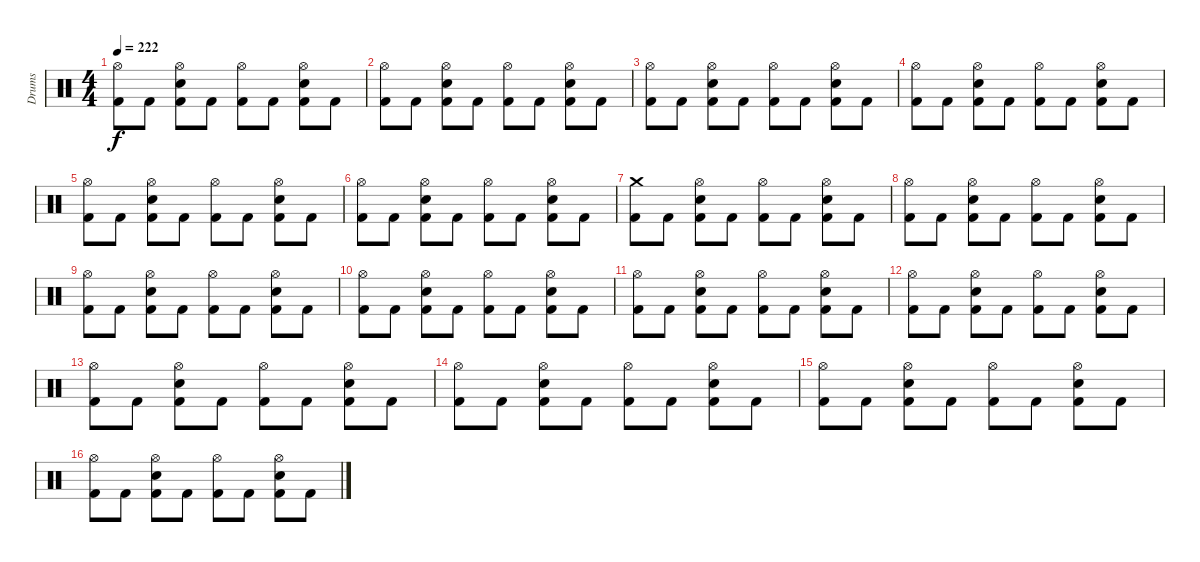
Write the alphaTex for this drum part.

\track ("Drums" "Drums") {instrument percussion}
\staff {score}
\articulation defaults
\ts (4 4)
\tempo 222
\clef neutral
\ks c
("Hi-Hat (open)" "Kick (hit) 2").8{dy f} "Kick (hit) 2".8 ("Hi-Hat (open)" "Electric Snare (hit)" "Kick (hit) 2").8 "Kick (hit) 2".8 ("Hi-Hat (open)" "Kick (hit) 2").8 "Kick (hit) 2".8 ("Hi-Hat (open)" "Electric Snare (hit)" "Kick (hit) 2").8 "Kick (hit) 2".8 |
("Hi-Hat (open)" "Kick (hit) 2").8 "Kick (hit) 2".8 ("Hi-Hat (open)" "Electric Snare (hit)" "Kick (hit) 2").8 "Kick (hit) 2".8 ("Hi-Hat (open)" "Kick (hit) 2").8 "Kick (hit) 2".8 ("Hi-Hat (open)" "Electric Snare (hit)" "Kick (hit) 2").8 "Kick (hit) 2".8 |
("Hi-Hat (open)" "Kick (hit) 2").8 "Kick (hit) 2".8 ("Hi-Hat (open)" "Electric Snare (hit)" "Kick (hit) 2").8 "Kick (hit) 2".8 ("Hi-Hat (open)" "Kick (hit) 2").8 "Kick (hit) 2".8 ("Hi-Hat (open)" "Electric Snare (hit)" "Kick (hit) 2").8 "Kick (hit) 2".8 |
("Hi-Hat (open)" "Kick (hit) 2").8 "Kick (hit) 2".8 ("Hi-Hat (open)" "Electric Snare (hit)" "Kick (hit) 2").8 "Kick (hit) 2".8 ("Hi-Hat (open)" "Kick (hit) 2").8 "Kick (hit) 2".8 ("Hi-Hat (open)" "Electric Snare (hit)" "Kick (hit) 2").8 "Kick (hit) 2".8 |
("Hi-Hat (open)" "Kick (hit) 2").8 "Kick (hit) 2".8 ("Hi-Hat (open)" "Electric Snare (hit)" "Kick (hit) 2").8 "Kick (hit) 2".8 ("Hi-Hat (open)" "Kick (hit) 2").8 "Kick (hit) 2".8 ("Hi-Hat (open)" "Electric Snare (hit)" "Kick (hit) 2").8 "Kick (hit) 2".8 |
("Hi-Hat (open)" "Kick (hit) 2").8 "Kick (hit) 2".8 ("Hi-Hat (open)" "Electric Snare (hit)" "Kick (hit) 2").8 "Kick (hit) 2".8 ("Hi-Hat (open)" "Kick (hit) 2").8 "Kick (hit) 2".8 ("Hi-Hat (open)" "Electric Snare (hit)" "Kick (hit) 2").8 "Kick (hit) 2".8 |
("Crash medium (hit)" "Kick (hit) 2").8 "Kick (hit) 2".8 ("Hi-Hat (open)" "Electric Snare (hit)" "Kick (hit) 2").8 "Kick (hit) 2".8 ("Hi-Hat (open)" "Kick (hit) 2").8 "Kick (hit) 2".8 ("Hi-Hat (open)" "Electric Snare (hit)" "Kick (hit) 2").8 "Kick (hit) 2".8 |
("Hi-Hat (open)" "Kick (hit) 2").8 "Kick (hit) 2".8 ("Hi-Hat (open)" "Electric Snare (hit)" "Kick (hit) 2").8 "Kick (hit) 2".8 ("Hi-Hat (open)" "Kick (hit) 2").8 "Kick (hit) 2".8 ("Hi-Hat (open)" "Electric Snare (hit)" "Kick (hit) 2").8 "Kick (hit) 2".8 |
("Hi-Hat (open)" "Kick (hit) 2").8 "Kick (hit) 2".8 ("Hi-Hat (open)" "Electric Snare (hit)" "Kick (hit) 2").8 "Kick (hit) 2".8 ("Hi-Hat (open)" "Kick (hit) 2").8 "Kick (hit) 2".8 ("Hi-Hat (open)" "Electric Snare (hit)" "Kick (hit) 2").8 "Kick (hit) 2".8 |
("Hi-Hat (open)" "Kick (hit) 2").8 "Kick (hit) 2".8 ("Hi-Hat (open)" "Electric Snare (hit)" "Kick (hit) 2").8 "Kick (hit) 2".8 ("Hi-Hat (open)" "Kick (hit) 2").8 "Kick (hit) 2".8 ("Hi-Hat (open)" "Electric Snare (hit)" "Kick (hit) 2").8 "Kick (hit) 2".8 |
("Hi-Hat (open)" "Kick (hit) 2").8 "Kick (hit) 2".8 ("Hi-Hat (open)" "Electric Snare (hit)" "Kick (hit) 2").8 "Kick (hit) 2".8 ("Hi-Hat (open)" "Kick (hit) 2").8 "Kick (hit) 2".8 ("Hi-Hat (open)" "Electric Snare (hit)" "Kick (hit) 2").8 "Kick (hit) 2".8 |
("Hi-Hat (open)" "Kick (hit) 2").8 "Kick (hit) 2".8 ("Hi-Hat (open)" "Electric Snare (hit)" "Kick (hit) 2").8 "Kick (hit) 2".8 ("Hi-Hat (open)" "Kick (hit) 2").8 "Kick (hit) 2".8 ("Hi-Hat (open)" "Electric Snare (hit)" "Kick (hit) 2").8 "Kick (hit) 2".8 |
("Hi-Hat (open)" "Kick (hit) 2").8 "Kick (hit) 2".8 ("Hi-Hat (open)" "Electric Snare (hit)" "Kick (hit) 2").8 "Kick (hit) 2".8 ("Hi-Hat (open)" "Kick (hit) 2").8 "Kick (hit) 2".8 ("Hi-Hat (open)" "Electric Snare (hit)" "Kick (hit) 2").8 "Kick (hit) 2".8 |
("Hi-Hat (open)" "Kick (hit) 2").8 "Kick (hit) 2".8 ("Hi-Hat (open)" "Electric Snare (hit)" "Kick (hit) 2").8 "Kick (hit) 2".8 ("Hi-Hat (open)" "Kick (hit) 2").8 "Kick (hit) 2".8 ("Hi-Hat (open)" "Electric Snare (hit)" "Kick (hit) 2").8 "Kick (hit) 2".8 |
("Hi-Hat (open)" "Kick (hit) 2").8 "Kick (hit) 2".8 ("Hi-Hat (open)" "Electric Snare (hit)" "Kick (hit) 2").8 "Kick (hit) 2".8 ("Hi-Hat (open)" "Kick (hit) 2").8 "Kick (hit) 2".8 ("Hi-Hat (open)" "Electric Snare (hit)" "Kick (hit) 2").8 "Kick (hit) 2".8 |
("Hi-Hat (open)" "Kick (hit) 2").8 "Kick (hit) 2".8 ("Hi-Hat (open)" "Electric Snare (hit)" "Kick (hit) 2").8 "Kick (hit) 2".8 ("Hi-Hat (open)" "Kick (hit) 2").8 "Kick (hit) 2".8 ("Hi-Hat (open)" "Electric Snare (hit)" "Kick (hit) 2").8 "Kick (hit) 2".8
